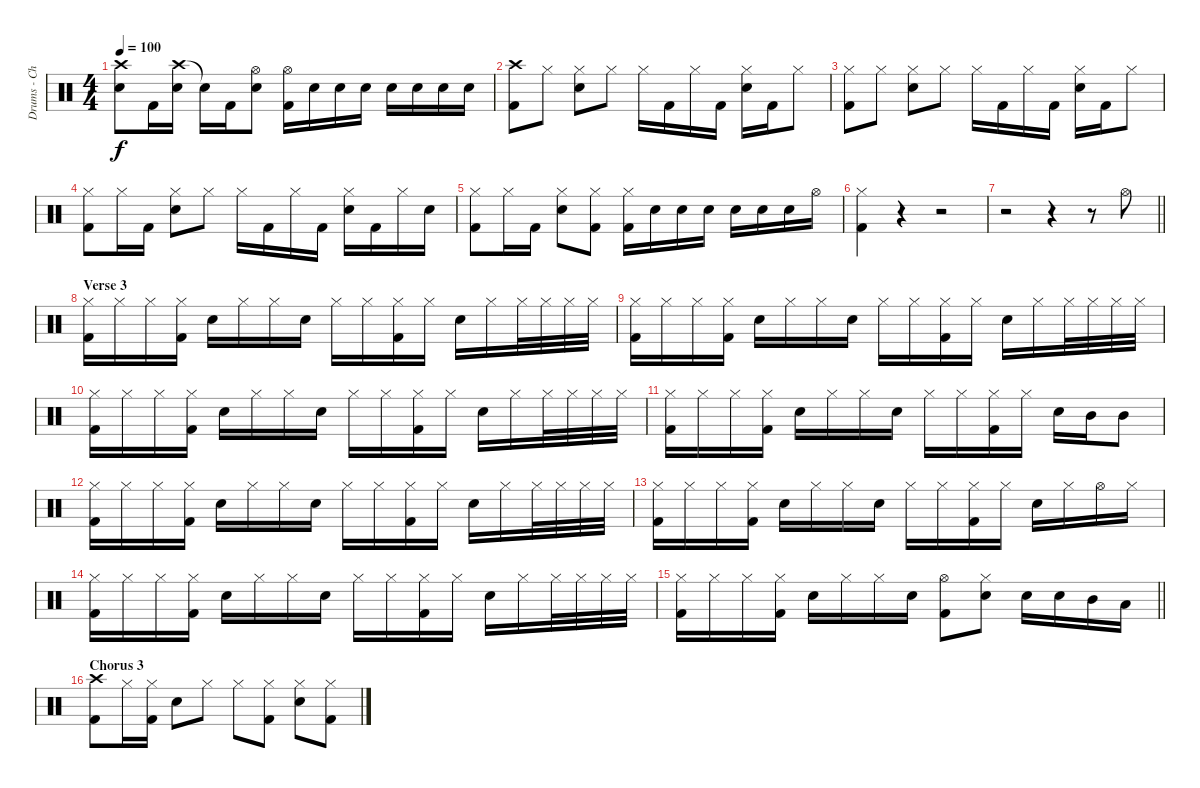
\track ("Drums - Chad" "Drums - Ch") {instrument percussion}
\staff {score}
\articulation defaults
\ts (4 4)
\tempo 100
\clef neutral
\ks c
("Crash high (hit)" "Electric Snare (hit)").8{dy f} "Kick (hit) 2".16 ("Crash high (hit)" "Electric Snare (hit)").16 "Snare (hit)"{t}.16 "Kick (hit) 2".16 ("Hi-Hat (open)" "Electric Snare (hit)").8 ("Hi-Hat (open)" "Kick (hit) 2").16 "Electric Snare (hit)".16 "Electric Snare (hit)".16 "Electric Snare (hit)".16 "Electric Snare (hit)".16 "Electric Snare (hit)".16 "Electric Snare (hit)".16 "Electric Snare (hit)".16 |
("Crash high (hit)" "Kick (hit) 2").8 "Hi-Hat (closed)".8 ("Hi-Hat (closed)" "Electric Snare (hit)").8 "Hi-Hat (closed)".8 "Hi-Hat (closed)".16 "Kick (hit) 2".16 "Hi-Hat (closed)".16 "Kick (hit) 2".16 ("Hi-Hat (closed)" "Electric Snare (hit)").16 "Kick (hit) 2".16 "Hi-Hat (closed)".8 |
("Hi-Hat (closed)" "Kick (hit) 2").8 "Hi-Hat (closed)".8 ("Hi-Hat (closed)" "Electric Snare (hit)").8 "Hi-Hat (closed)".8 "Hi-Hat (closed)".16 "Kick (hit) 2".16 "Hi-Hat (closed)".16 "Kick (hit) 2".16 ("Hi-Hat (closed)" "Electric Snare (hit)").16 "Kick (hit) 2".16 "Hi-Hat (closed)".8 |
("Hi-Hat (closed)" "Kick (hit) 2").8 "Hi-Hat (closed)".16 "Kick (hit) 2".16 ("Hi-Hat (closed)" "Electric Snare (hit)").8 "Hi-Hat (closed)".8 "Hi-Hat (closed)".16 "Kick (hit) 2".16 "Hi-Hat (closed)".16 "Kick (hit) 2".16 ("Hi-Hat (closed)" "Electric Snare (hit)").16 "Kick (hit) 2".16 "Hi-Hat (closed)".16 "Electric Snare (hit)".16 |
("Hi-Hat (closed)" "Kick (hit) 2").8 "Hi-Hat (closed)".16 "Kick (hit) 2".16 ("Hi-Hat (closed)" "Electric Snare (hit)").8 ("Hi-Hat (closed)" "Kick (hit) 2").8 ("Hi-Hat (closed)" "Kick (hit) 2").16 "Electric Snare (hit)".16 "Electric Snare (hit)".16 "Electric Snare (hit)".16 "Electric Snare (hit)".16 "Electric Snare (hit)".16 "Electric Snare (hit)".16 "Hi-Hat (open)".16 |
("Hi-Hat (closed)" "Kick (hit) 2").4 r.4 r.2 |
\barLineRight lightlight
r.2 r.4 r.8 "Hi-Hat (open)".8 |
\section ("" "Verse 3")
("Hi-Hat (closed)" "Kick (hit) 2").16 "Hi-Hat (closed)".16 "Hi-Hat (closed)".16 ("Hi-Hat (closed)" "Kick (hit) 2").16 "Electric Snare (hit)".16 "Hi-Hat (closed)".16 "Hi-Hat (closed)".16 "Electric Snare (hit)".16 "Hi-Hat (closed)".16 "Hi-Hat (closed)".16 ("Hi-Hat (closed)" "Kick (hit) 2").16 "Hi-Hat (closed)".16 "Electric Snare (hit)".16 "Hi-Hat (closed)".16 "Hi-Hat (closed)".32 "Hi-Hat (closed)".32 "Hi-Hat (closed)".32 "Hi-Hat (closed)".32 |
("Hi-Hat (closed)" "Kick (hit) 2").16 "Hi-Hat (closed)".16 "Hi-Hat (closed)".16 ("Hi-Hat (closed)" "Kick (hit) 2").16 "Electric Snare (hit)".16 "Hi-Hat (closed)".16 "Hi-Hat (closed)".16 "Electric Snare (hit)".16 "Hi-Hat (closed)".16 "Hi-Hat (closed)".16 ("Hi-Hat (closed)" "Kick (hit) 2").16 "Hi-Hat (closed)".16 "Electric Snare (hit)".16 "Hi-Hat (closed)".16 "Hi-Hat (closed)".32 "Hi-Hat (closed)".32 "Hi-Hat (closed)".32 "Hi-Hat (closed)".32 |
("Hi-Hat (closed)" "Kick (hit) 2").16 "Hi-Hat (closed)".16 "Hi-Hat (closed)".16 ("Hi-Hat (closed)" "Kick (hit) 2").16 "Electric Snare (hit)".16 "Hi-Hat (closed)".16 "Hi-Hat (closed)".16 "Electric Snare (hit)".16 "Hi-Hat (closed)".16 "Hi-Hat (closed)".16 ("Hi-Hat (closed)" "Kick (hit) 2").16 "Hi-Hat (closed)".16 "Electric Snare (hit)".16 "Hi-Hat (closed)".16 "Hi-Hat (closed)".32 "Hi-Hat (closed)".32 "Hi-Hat (closed)".32 "Hi-Hat (closed)".32 |
("Hi-Hat (closed)" "Kick (hit) 2").16 "Hi-Hat (closed)".16 "Hi-Hat (closed)".16 ("Hi-Hat (closed)" "Kick (hit) 2").16 "Electric Snare (hit)".16 "Hi-Hat (closed)".16 "Hi-Hat (closed)".16 "Electric Snare (hit)".16 "Hi-Hat (closed)".16 "Hi-Hat (closed)".16 ("Hi-Hat (closed)" "Kick (hit) 2").16 "Hi-Hat (closed)".16 "Electric Snare (hit)".16 "Mid Tom (hit)".16 "Mid Tom (hit)".8 |
("Hi-Hat (closed)" "Kick (hit) 2").16 "Hi-Hat (closed)".16 "Hi-Hat (closed)".16 ("Hi-Hat (closed)" "Kick (hit) 2").16 "Electric Snare (hit)".16 "Hi-Hat (closed)".16 "Hi-Hat (closed)".16 "Electric Snare (hit)".16 "Hi-Hat (closed)".16 "Hi-Hat (closed)".16 ("Hi-Hat (closed)" "Kick (hit) 2").16 "Hi-Hat (closed)".16 "Electric Snare (hit)".16 "Hi-Hat (closed)".16 "Hi-Hat (closed)".32 "Hi-Hat (closed)".32 "Hi-Hat (closed)".32 "Hi-Hat (closed)".32 |
("Hi-Hat (closed)" "Kick (hit) 2").16 "Hi-Hat (closed)".16 "Hi-Hat (closed)".16 ("Hi-Hat (closed)" "Kick (hit) 2").16 "Electric Snare (hit)".16 "Hi-Hat (closed)".16 "Hi-Hat (closed)".16 "Electric Snare (hit)".16 "Hi-Hat (closed)".16 "Hi-Hat (closed)".16 ("Hi-Hat (closed)" "Kick (hit) 2").16 "Hi-Hat (closed)".16 "Electric Snare (hit)".16 "Hi-Hat (closed)".16 "Hi-Hat (open)".16 "Hi-Hat (closed)".16 |
("Hi-Hat (closed)" "Kick (hit) 2").16 "Hi-Hat (closed)".16 "Hi-Hat (closed)".16 ("Hi-Hat (closed)" "Kick (hit) 2").16 "Electric Snare (hit)".16 "Hi-Hat (closed)".16 "Hi-Hat (closed)".16 "Electric Snare (hit)".16 "Hi-Hat (closed)".16 "Hi-Hat (closed)".16 ("Hi-Hat (closed)" "Kick (hit) 2").16 "Hi-Hat (closed)".16 "Electric Snare (hit)".16 "Hi-Hat (closed)".16 "Hi-Hat (closed)".32 "Hi-Hat (closed)".32 "Hi-Hat (closed)".32 "Hi-Hat (closed)".32 |
\barLineRight lightlight
("Hi-Hat (closed)" "Kick (hit) 2").16 "Hi-Hat (closed)".16 "Hi-Hat (closed)".16 ("Hi-Hat (closed)" "Kick (hit) 2").16 "Electric Snare (hit)".16 "Hi-Hat (closed)".16 "Hi-Hat (closed)".16 "Electric Snare (hit)".16 ("Hi-Hat (open)" "Kick (hit) 2").8 ("Hi-Hat (closed)" "Electric Snare (hit)").8 "Electric Snare (hit)".16 "Electric Snare (hit)".16 "Mid Tom (hit)".16 "Low Tom (hit)".16 |
\section ("" "Chorus 3")
("Crash high (hit)" "Kick (hit) 2").8 "Hi-Hat (closed)".16 ("Hi-Hat (closed)" "Kick (hit) 2").16 "Electric Snare (hit)".8 "Hi-Hat (closed)".8 "Hi-Hat (closed)".8 ("Hi-Hat (closed)" "Kick (hit) 2").8 ("Hi-Hat (closed)" "Electric Snare (hit)").8 ("Hi-Hat (closed)" "Kick (hit) 2").8
